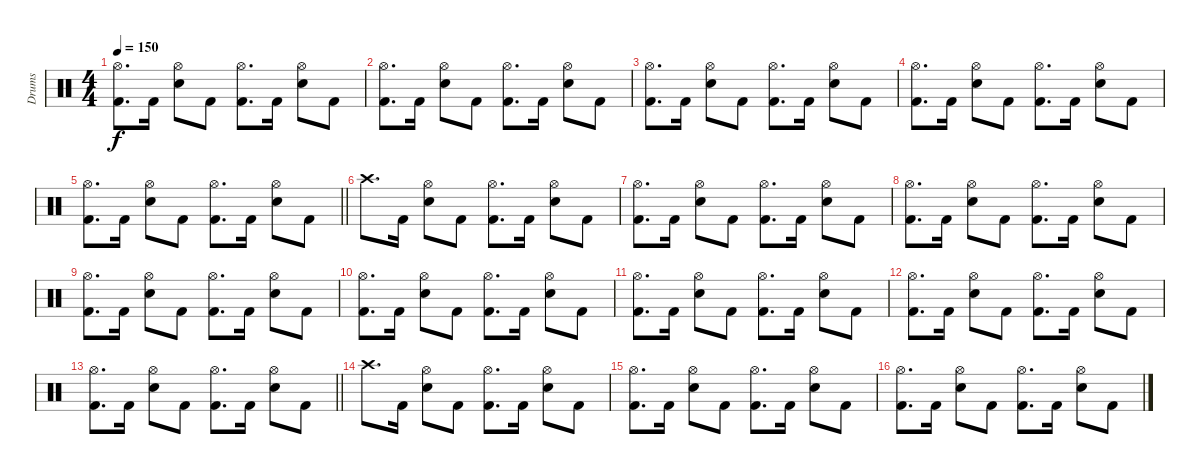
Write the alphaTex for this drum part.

\track ("Drums" "Drums") {instrument percussion}
\staff {score}
\articulation defaults
\ts (4 4)
\tempo 150
\clef neutral
\ks c
("Kick (hit) 2" "Hi-Hat (open)").8{d dy f} "Kick (hit) 2".16 ("Snare (hit) 2" "Hi-Hat (open)").8 "Kick (hit) 2".8 ("Kick (hit) 2" "Hi-Hat (open)").8{d} "Kick (hit) 2".16 ("Snare (hit) 2" "Hi-Hat (open)").8 "Kick (hit) 2".8 |
("Kick (hit) 2" "Hi-Hat (open)").8{d} "Kick (hit) 2".16 ("Snare (hit) 2" "Hi-Hat (open)").8 "Kick (hit) 2".8 ("Kick (hit) 2" "Hi-Hat (open)").8{d} "Kick (hit) 2".16 ("Snare (hit) 2" "Hi-Hat (open)").8 "Kick (hit) 2".8 |
("Kick (hit) 2" "Hi-Hat (open)").8{d} "Kick (hit) 2".16 ("Snare (hit) 2" "Hi-Hat (open)").8 "Kick (hit) 2".8 ("Kick (hit) 2" "Hi-Hat (open)").8{d} "Kick (hit) 2".16 ("Snare (hit) 2" "Hi-Hat (open)").8 "Kick (hit) 2".8 |
("Kick (hit) 2" "Hi-Hat (open)").8{d} "Kick (hit) 2".16 ("Snare (hit) 2" "Hi-Hat (open)").8 "Kick (hit) 2".8 ("Kick (hit) 2" "Hi-Hat (open)").8{d} "Kick (hit) 2".16 ("Snare (hit) 2" "Hi-Hat (open)").8 "Kick (hit) 2".8 |
\barLineRight lightlight
("Kick (hit) 2" "Hi-Hat (open)").8{d} "Kick (hit) 2".16 ("Snare (hit) 2" "Hi-Hat (open)").8 "Kick (hit) 2".8 ("Kick (hit) 2" "Hi-Hat (open)").8{d} "Kick (hit) 2".16 ("Snare (hit) 2" "Hi-Hat (open)").8 "Kick (hit) 2".8 |
"Crash high (hit)".8{d} "Kick (hit) 2".16 ("Snare (hit) 2" "Hi-Hat (open)").8 "Kick (hit) 2".8 ("Kick (hit) 2" "Hi-Hat (open)").8{d} "Kick (hit) 2".16 ("Snare (hit) 2" "Hi-Hat (open)").8 "Kick (hit) 2".8 |
("Kick (hit) 2" "Hi-Hat (open)").8{d} "Kick (hit) 2".16 ("Snare (hit) 2" "Hi-Hat (open)").8 "Kick (hit) 2".8 ("Kick (hit) 2" "Hi-Hat (open)").8{d} "Kick (hit) 2".16 ("Snare (hit) 2" "Hi-Hat (open)").8 "Kick (hit) 2".8 |
("Kick (hit) 2" "Hi-Hat (open)").8{d} "Kick (hit) 2".16 ("Snare (hit) 2" "Hi-Hat (open)").8 "Kick (hit) 2".8 ("Kick (hit) 2" "Hi-Hat (open)").8{d} "Kick (hit) 2".16 ("Snare (hit) 2" "Hi-Hat (open)").8 "Kick (hit) 2".8 |
("Kick (hit) 2" "Hi-Hat (open)").8{d} "Kick (hit) 2".16 ("Snare (hit) 2" "Hi-Hat (open)").8 "Kick (hit) 2".8 ("Kick (hit) 2" "Hi-Hat (open)").8{d} "Kick (hit) 2".16 ("Snare (hit) 2" "Hi-Hat (open)").8 "Kick (hit) 2".8 |
("Kick (hit) 2" "Hi-Hat (open)").8{d} "Kick (hit) 2".16 ("Snare (hit) 2" "Hi-Hat (open)").8 "Kick (hit) 2".8 ("Kick (hit) 2" "Hi-Hat (open)").8{d} "Kick (hit) 2".16 ("Snare (hit) 2" "Hi-Hat (open)").8 "Kick (hit) 2".8 |
("Kick (hit) 2" "Hi-Hat (open)").8{d} "Kick (hit) 2".16 ("Snare (hit) 2" "Hi-Hat (open)").8 "Kick (hit) 2".8 ("Kick (hit) 2" "Hi-Hat (open)").8{d} "Kick (hit) 2".16 ("Snare (hit) 2" "Hi-Hat (open)").8 "Kick (hit) 2".8 |
("Kick (hit) 2" "Hi-Hat (open)").8{d} "Kick (hit) 2".16 ("Snare (hit) 2" "Hi-Hat (open)").8 "Kick (hit) 2".8 ("Kick (hit) 2" "Hi-Hat (open)").8{d} "Kick (hit) 2".16 ("Snare (hit) 2" "Hi-Hat (open)").8 "Kick (hit) 2".8 |
\barLineRight lightlight
("Kick (hit) 2" "Hi-Hat (open)").8{d} "Kick (hit) 2".16 ("Snare (hit) 2" "Hi-Hat (open)").8 "Kick (hit) 2".8 ("Kick (hit) 2" "Hi-Hat (open)").8{d} "Kick (hit) 2".16 ("Snare (hit) 2" "Hi-Hat (open)").8 "Kick (hit) 2".8 |
"Crash high (hit)".8{d} "Kick (hit) 2".16 ("Snare (hit) 2" "Hi-Hat (open)").8 "Kick (hit) 2".8 ("Kick (hit) 2" "Hi-Hat (open)").8{d} "Kick (hit) 2".16 ("Snare (hit) 2" "Hi-Hat (open)").8 "Kick (hit) 2".8 |
("Kick (hit) 2" "Hi-Hat (open)").8{d} "Kick (hit) 2".16 ("Snare (hit) 2" "Hi-Hat (open)").8 "Kick (hit) 2".8 ("Kick (hit) 2" "Hi-Hat (open)").8{d} "Kick (hit) 2".16 ("Snare (hit) 2" "Hi-Hat (open)").8 "Kick (hit) 2".8 |
("Kick (hit) 2" "Hi-Hat (open)").8{d} "Kick (hit) 2".16 ("Snare (hit) 2" "Hi-Hat (open)").8 "Kick (hit) 2".8 ("Kick (hit) 2" "Hi-Hat (open)").8{d} "Kick (hit) 2".16 ("Snare (hit) 2" "Hi-Hat (open)").8 "Kick (hit) 2".8
